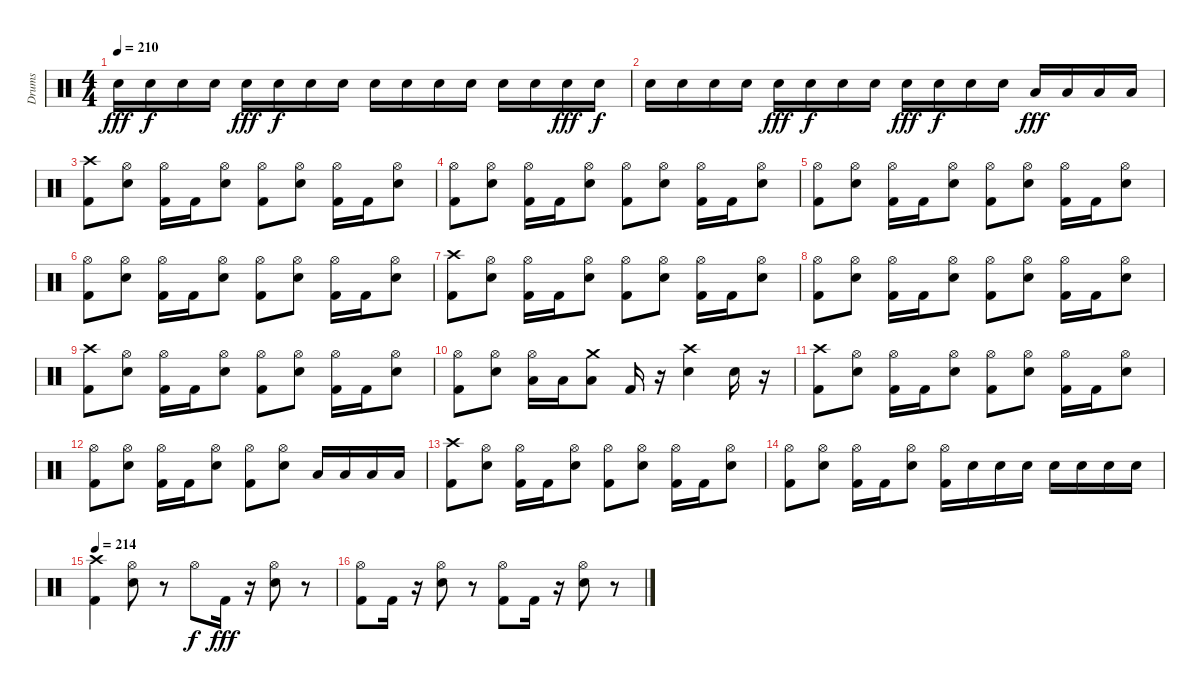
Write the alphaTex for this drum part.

\track ("Drums" "Drums") {instrument percussion}
\staff {score}
\articulation defaults
\ts (4 4)
\tempo 210
\clef neutral
\ks c "Electric Snare (hit)".16{dy fff} "Electric Snare (hit)".16{dy f} "Electric Snare (hit)".16 "Electric Snare (hit)".16 "Electric Snare (hit)".16{dy fff} "Electric Snare (hit)".16{dy f} "Electric Snare (hit)".16 "Electric Snare (hit)".16 "Electric Snare (hit)".16 "Electric Snare (hit)".16 "Electric Snare (hit)".16 "Electric Snare (hit)".16 "Electric Snare (hit)".16 "Electric Snare (hit)".16 "Electric Snare (hit)".16{dy fff} "Electric Snare (hit)".16{dy f}
|
"Electric Snare (hit)".16 "Electric Snare (hit)".16 "Electric Snare (hit)".16 "Electric Snare (hit)".16 "Electric Snare (hit)".16{dy fff} "Electric Snare (hit)".16{dy f} "Electric Snare (hit)".16 "Electric Snare (hit)".16 "Electric Snare (hit)".16{dy fff} "Electric Snare (hit)".16{dy f} "Electric Snare (hit)".16 "Electric Snare (hit)".16 "Low Tom (hit)".16{dy fff} "Low Tom (hit)".16 "Low Tom (hit)".16 "Low Tom (hit)".16 |
("Kick (hit) 2" "Crash high (hit)").8 ("Electric Snare (hit)" "Hi-Hat (open)").8 ("Kick (hit) 2" "Hi-Hat (open)").16 "Kick (hit) 2".16 ("Electric Snare (hit)" "Hi-Hat (open)").8 ("Kick (hit) 2" "Hi-Hat (open)").8 ("Electric Snare (hit)" "Hi-Hat (open)").8 ("Kick (hit) 2" "Hi-Hat (open)").16 "Kick (hit) 2".16 ("Electric Snare (hit)" "Hi-Hat (open)").8 |
("Kick (hit) 2" "Hi-Hat (open)").8 ("Electric Snare (hit)" "Hi-Hat (open)").8 ("Kick (hit) 2" "Hi-Hat (open)").16 "Kick (hit) 2".16 ("Electric Snare (hit)" "Hi-Hat (open)").8 ("Kick (hit) 2" "Hi-Hat (open)").8 ("Electric Snare (hit)" "Hi-Hat (open)").8 ("Kick (hit) 2" "Hi-Hat (open)").16 "Kick (hit) 2".16 ("Electric Snare (hit)" "Hi-Hat (open)").8 |
("Kick (hit) 2" "Hi-Hat (open)").8 ("Electric Snare (hit)" "Hi-Hat (open)").8 ("Kick (hit) 2" "Hi-Hat (open)").16 "Kick (hit) 2".16 ("Electric Snare (hit)" "Hi-Hat (open)").8 ("Kick (hit) 2" "Hi-Hat (open)").8 ("Electric Snare (hit)" "Hi-Hat (open)").8 ("Kick (hit) 2" "Hi-Hat (open)").16 "Kick (hit) 2".16 ("Electric Snare (hit)" "Hi-Hat (open)").8 |
("Kick (hit) 2" "Hi-Hat (open)").8 ("Electric Snare (hit)" "Hi-Hat (open)").8 ("Kick (hit) 2" "Hi-Hat (open)").16 "Kick (hit) 2".16 ("Electric Snare (hit)" "Hi-Hat (open)").8 ("Kick (hit) 2" "Hi-Hat (open)").8 ("Electric Snare (hit)" "Hi-Hat (open)").8 ("Kick (hit) 2" "Hi-Hat (open)").16 "Kick (hit) 2".16 ("Electric Snare (hit)" "Hi-Hat (open)").8 |
("Kick (hit) 2" "Crash high (hit)").8 ("Electric Snare (hit)" "Hi-Hat (open)").8 ("Kick (hit) 2" "Hi-Hat (open)").16 "Kick (hit) 2".16 ("Electric Snare (hit)" "Hi-Hat (open)").8 ("Kick (hit) 2" "Hi-Hat (open)").8 ("Electric Snare (hit)" "Hi-Hat (open)").8 ("Kick (hit) 2" "Hi-Hat (open)").16 "Kick (hit) 2".16 ("Electric Snare (hit)" "Hi-Hat (open)").8 |
("Kick (hit) 2" "Hi-Hat (open)").8 ("Electric Snare (hit)" "Hi-Hat (open)").8 ("Kick (hit) 2" "Hi-Hat (open)").16 "Kick (hit) 2".16 ("Electric Snare (hit)" "Hi-Hat (open)").8 ("Kick (hit) 2" "Hi-Hat (open)").8 ("Electric Snare (hit)" "Hi-Hat (open)").8 ("Kick (hit) 2" "Hi-Hat (open)").16 "Kick (hit) 2".16 ("Electric Snare (hit)" "Hi-Hat (open)").8 |
("Kick (hit) 2" "Crash high (hit)").8 ("Electric Snare (hit)" "Hi-Hat (open)").8 ("Kick (hit) 2" "Hi-Hat (open)").16 "Kick (hit) 2".16 ("Electric Snare (hit)" "Hi-Hat (open)").8 ("Kick (hit) 2" "Hi-Hat (open)").8 ("Electric Snare (hit)" "Hi-Hat (open)").8 ("Kick (hit) 2" "Hi-Hat (open)").16 "Kick (hit) 2".16 ("Electric Snare (hit)" "Hi-Hat (open)").8 |
("Kick (hit) 2" "Hi-Hat (open)").8 ("Electric Snare (hit)" "Hi-Hat (open)").8 ("Low Tom (hit)" "Hi-Hat (open)").16 "Low Tom (hit)".16 ("Crash medium (hit)" "Low Tom (hit)").8 "Kick (hit) 2".16 r.16 ("Electric Snare (hit)" "Crash high (hit)").4 "Electric Snare (hit)".16 r.16 |
("Kick (hit) 2" "Crash high (hit)").8 ("Electric Snare (hit)" "Hi-Hat (open)").8 ("Kick (hit) 2" "Hi-Hat (open)").16 "Kick (hit) 2".16 ("Electric Snare (hit)" "Hi-Hat (open)").8 ("Kick (hit) 2" "Hi-Hat (open)").8 ("Electric Snare (hit)" "Hi-Hat (open)").8 ("Kick (hit) 2" "Hi-Hat (open)").16 "Kick (hit) 2".16 ("Electric Snare (hit)" "Hi-Hat (open)").8 |
("Kick (hit) 2" "Hi-Hat (open)").8 ("Electric Snare (hit)" "Hi-Hat (open)").8 ("Kick (hit) 2" "Hi-Hat (open)").16 "Kick (hit) 2".16 ("Electric Snare (hit)" "Hi-Hat (open)").8 ("Kick (hit) 2" "Hi-Hat (open)").8 ("Electric Snare (hit)" "Hi-Hat (open)").8 "Low Tom (hit)".16 "Low Tom (hit)".16 "Low Tom (hit)".16 "Low Tom (hit)".16 |
("Kick (hit) 2" "Crash high (hit)").8 ("Electric Snare (hit)" "Hi-Hat (open)").8 ("Kick (hit) 2" "Hi-Hat (open)").16 "Kick (hit) 2".16 ("Electric Snare (hit)" "Hi-Hat (open)").8 ("Kick (hit) 2" "Hi-Hat (open)").8 ("Electric Snare (hit)" "Hi-Hat (open)").8 ("Kick (hit) 2" "Hi-Hat (open)").16 "Kick (hit) 2".16 ("Electric Snare (hit)" "Hi-Hat (open)").8 |
("Kick (hit) 2" "Hi-Hat (open)").8 ("Electric Snare (hit)" "Hi-Hat (open)").8 ("Kick (hit) 2" "Hi-Hat (open)").16 "Kick (hit) 2".16 ("Electric Snare (hit)" "Hi-Hat (open)").8 ("Kick (hit) 2" "Hi-Hat (open)").16 "Electric Snare (hit)".16 "Electric Snare (hit)".16 "Electric Snare (hit)".16 "Electric Snare (hit)".16 "Electric Snare (hit)".16 "Electric Snare (hit)".16 "Electric Snare (hit)".16 |
\tempo 214
("Kick (hit) 2" "Crash high (hit)").4 ("Electric Snare (hit)" "Hi-Hat (open)").8 r.8 "Hi-Hat (open)".8{dy f} "Kick (hit) 2".16{dy fff} r.16 ("Electric Snare (hit)" "Hi-Hat (open)").8 r.8 |
("Kick (hit) 2" "Hi-Hat (open)").8 "Kick (hit) 2".16 r.16 ("Electric Snare (hit)" "Hi-Hat (open)").8 r.8 ("Kick (hit) 2" "Hi-Hat (open)").8 "Kick (hit) 2".16 r.16 ("Electric Snare (hit)" "Hi-Hat (open)").8 r.8
